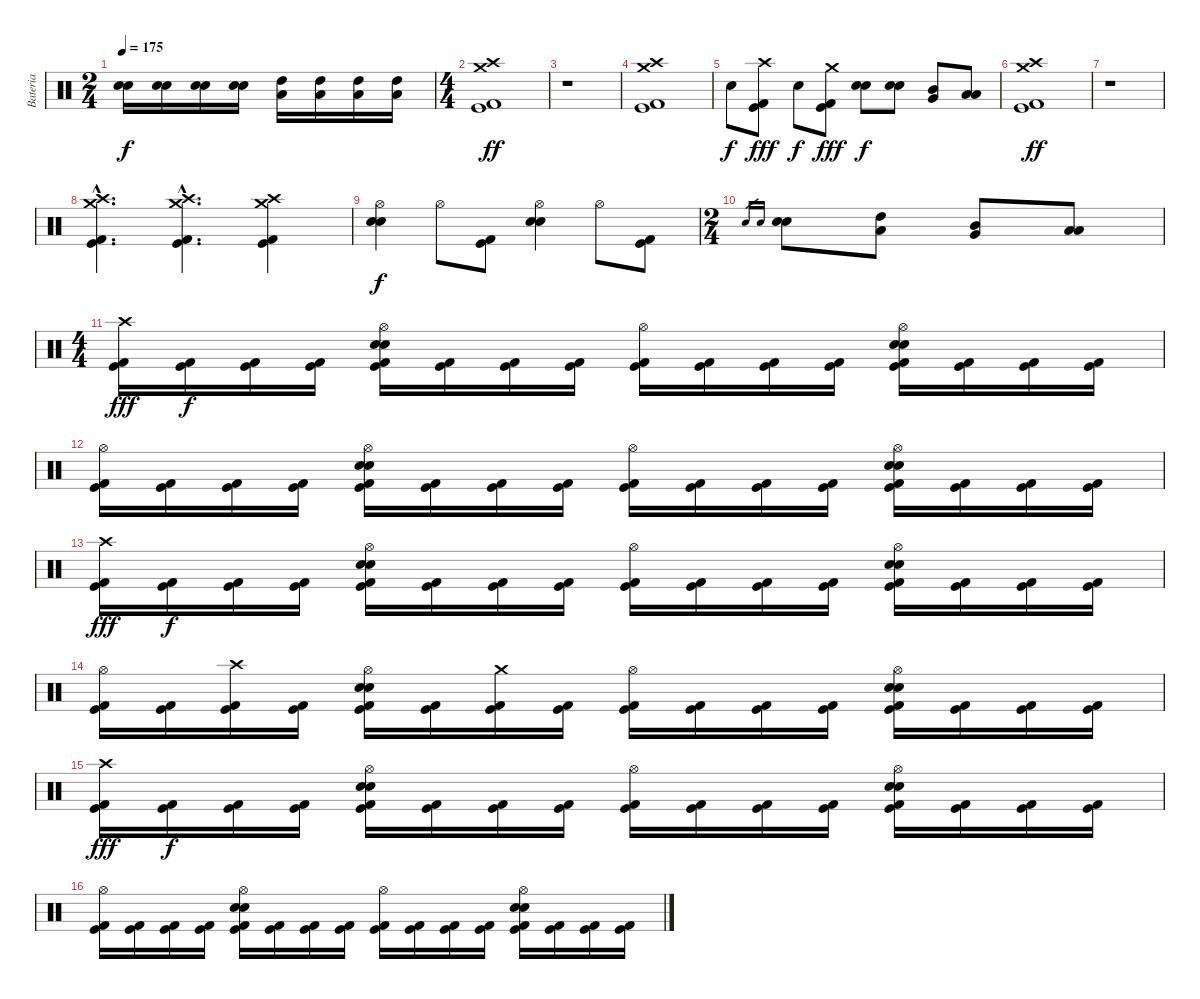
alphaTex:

\track ("Bateria" "Bateria") {instrument percussion}
\staff {score}
\articulation defaults
\ts (2 4)
\tempo 175
\clef neutral
\ks c
("Electric Snare (hit)" "Snare (hit) 2").16{dy f} ("Electric Snare (hit)" "Snare (hit) 2").16 ("Electric Snare (hit)" "Snare (hit) 2").16 ("Electric Snare (hit)" "Snare (hit) 2").16 ("High Tom (hit)" "Low Tom (hit)").16 ("High Tom (hit)" "Low Tom (hit)").16 ("High Tom (hit)" "Low Tom (hit)").16 ("High Tom (hit)" "Low Tom (hit)").16 |
\ts (4 4)
("Crash high (hit)" "Crash medium (hit)" "Kick (hit) 2" "Kick (hit)").1{dy ff} |
r.1 |
("Crash high (hit)" "Crash medium (hit)" "Kick (hit) 2" "Kick (hit)").1 |
"Snare (hit)"{x}.8{dy f} ("Crash high (hit)" "Kick (hit) 2" "Kick (hit)").8{dy fff} "Snare (hit)"{x}.8{dy f} ("Crash medium (hit)" "Kick (hit) 2" "Kick (hit)").8{dy fff} ("Electric Snare (hit)" "Snare (hit) 2").8{dy f} ("Electric Snare (hit)" "Snare (hit) 2").8 ("Mid Tom (hit)" "Very Low Tom (hit)").8 ("Low Tom (hit)" "Low Floor Tom (hit)").8 |
("Crash high (hit)" "Crash medium (hit)" "Kick (hit) 2" "Kick (hit)").1{dy ff} |
r.1 |
("Crash high (hit)"{hac} "Crash medium (hit)"{hac} "Kick (hit) 2"{hac} "Kick (hit)"{hac}).4{d} ("Crash high (hit)"{hac} "Crash medium (hit)"{hac} "Kick (hit) 2"{hac} "Kick (hit)"{hac}).4{d} ("Crash high (hit)" "Crash medium (hit)" "Kick (hit) 2" "Kick (hit)").4 |
("Hi-Hat (open)" "Electric Snare (hit)" "Snare (hit) 2").4{dy f} "Hi-Hat (open)".8 ("Kick (hit) 2" "Kick (hit)").8 ("Hi-Hat (open)" "Electric Snare (hit)" "Snare (hit) 2").4 "Hi-Hat (open)".8 ("Kick (hit) 2" "Kick (hit)").8 |
\ts (2 4)
"Electric Snare (hit)".16{gr} "Snare (hit) 2".16{gr} ("Electric Snare (hit)" "Snare (hit) 2").8 ("High Tom (hit)" "Low Tom (hit)").8 ("Mid Tom (hit)" "Very Low Tom (hit)").8 ("Low Tom (hit)" "Low Floor Tom (hit)").8 |
\ts (4 4)
("Crash high (hit)" "Kick (hit) 2" "Kick (hit)").16{dy fff} ("Kick (hit) 2" "Kick (hit)").16{dy f} ("Kick (hit) 2" "Kick (hit)").16 ("Kick (hit) 2" "Kick (hit)").16 ("Hi-Hat (open)" "Electric Snare (hit)" "Snare (hit) 2" "Kick (hit) 2" "Kick (hit)").16 ("Kick (hit) 2" "Kick (hit)").16 ("Kick (hit) 2" "Kick (hit)").16 ("Kick (hit) 2" "Kick (hit)").16 ("Hi-Hat (open)" "Kick (hit) 2" "Kick (hit)").16 ("Kick (hit) 2" "Kick (hit)").16 ("Kick (hit) 2" "Kick (hit)").16 ("Kick (hit) 2" "Kick (hit)").16 ("Hi-Hat (open)" "Electric Snare (hit)" "Snare (hit) 2" "Kick (hit) 2" "Kick (hit)").16 ("Kick (hit) 2" "Kick (hit)").16 ("Kick (hit) 2" "Kick (hit)").16 ("Kick (hit) 2" "Kick (hit)").16 |
("Hi-Hat (open)" "Kick (hit) 2" "Kick (hit)").16 ("Kick (hit) 2" "Kick (hit)").16 ("Kick (hit) 2" "Kick (hit)").16 ("Kick (hit) 2" "Kick (hit)").16 ("Hi-Hat (open)" "Electric Snare (hit)" "Snare (hit) 2" "Kick (hit) 2" "Kick (hit)").16 ("Kick (hit) 2" "Kick (hit)").16 ("Kick (hit) 2" "Kick (hit)").16 ("Kick (hit) 2" "Kick (hit)").16 ("Hi-Hat (open)" "Kick (hit) 2" "Kick (hit)").16 ("Kick (hit) 2" "Kick (hit)").16 ("Kick (hit) 2" "Kick (hit)").16 ("Kick (hit) 2" "Kick (hit)").16 ("Hi-Hat (open)" "Electric Snare (hit)" "Snare (hit) 2" "Kick (hit) 2" "Kick (hit)").16 ("Kick (hit) 2" "Kick (hit)").16 ("Kick (hit) 2" "Kick (hit)").16 ("Kick (hit) 2" "Kick (hit)").16 |
("Crash high (hit)" "Kick (hit) 2" "Kick (hit)").16{dy fff} ("Kick (hit) 2" "Kick (hit)").16{dy f} ("Kick (hit) 2" "Kick (hit)").16 ("Kick (hit) 2" "Kick (hit)").16 ("Hi-Hat (open)" "Electric Snare (hit)" "Snare (hit) 2" "Kick (hit) 2" "Kick (hit)").16 ("Kick (hit) 2" "Kick (hit)").16 ("Kick (hit) 2" "Kick (hit)").16 ("Kick (hit) 2" "Kick (hit)").16 ("Hi-Hat (open)" "Kick (hit) 2" "Kick (hit)").16 ("Kick (hit) 2" "Kick (hit)").16 ("Kick (hit) 2" "Kick (hit)").16 ("Kick (hit) 2" "Kick (hit)").16 ("Hi-Hat (open)" "Electric Snare (hit)" "Snare (hit) 2" "Kick (hit) 2" "Kick (hit)").16 ("Kick (hit) 2" "Kick (hit)").16 ("Kick (hit) 2" "Kick (hit)").16 ("Kick (hit) 2" "Kick (hit)").16 |
("Hi-Hat (open)" "Kick (hit) 2" "Kick (hit)").16 ("Kick (hit) 2" "Kick (hit)").16 ("Crash high (hit)" "Kick (hit) 2" "Kick (hit)").16 ("Kick (hit) 2" "Kick (hit)").16 ("Hi-Hat (open)" "Electric Snare (hit)" "Snare (hit) 2" "Kick (hit) 2" "Kick (hit)").16 ("Kick (hit) 2" "Kick (hit)").16 ("Crash medium (hit)" "Kick (hit) 2" "Kick (hit)").16 ("Kick (hit) 2" "Kick (hit)").16 ("Hi-Hat (open)" "Kick (hit) 2" "Kick (hit)").16 ("Kick (hit) 2" "Kick (hit)").16 ("Kick (hit) 2" "Kick (hit)").16 ("Kick (hit) 2" "Kick (hit)").16 ("Hi-Hat (open)" "Electric Snare (hit)" "Snare (hit) 2" "Kick (hit) 2" "Kick (hit)").16 ("Kick (hit) 2" "Kick (hit)").16 ("Kick (hit) 2" "Kick (hit)").16 ("Kick (hit) 2" "Kick (hit)").16 |
("Crash high (hit)" "Kick (hit) 2" "Kick (hit)").16{dy fff} ("Kick (hit) 2" "Kick (hit)").16{dy f} ("Kick (hit) 2" "Kick (hit)").16 ("Kick (hit) 2" "Kick (hit)").16 ("Hi-Hat (open)" "Electric Snare (hit)" "Snare (hit) 2" "Kick (hit) 2" "Kick (hit)").16 ("Kick (hit) 2" "Kick (hit)").16 ("Kick (hit) 2" "Kick (hit)").16 ("Kick (hit) 2" "Kick (hit)").16 ("Hi-Hat (open)" "Kick (hit) 2" "Kick (hit)").16 ("Kick (hit) 2" "Kick (hit)").16 ("Kick (hit) 2" "Kick (hit)").16 ("Kick (hit) 2" "Kick (hit)").16 ("Hi-Hat (open)" "Electric Snare (hit)" "Snare (hit) 2" "Kick (hit) 2" "Kick (hit)").16 ("Kick (hit) 2" "Kick (hit)").16 ("Kick (hit) 2" "Kick (hit)").16 ("Kick (hit) 2" "Kick (hit)").16 |
("Hi-Hat (open)" "Kick (hit) 2" "Kick (hit)").16 ("Kick (hit) 2" "Kick (hit)").16 ("Kick (hit) 2" "Kick (hit)").16 ("Kick (hit) 2" "Kick (hit)").16 ("Hi-Hat (open)" "Electric Snare (hit)" "Snare (hit) 2" "Kick (hit) 2" "Kick (hit)").16 ("Kick (hit) 2" "Kick (hit)").16 ("Kick (hit) 2" "Kick (hit)").16 ("Kick (hit) 2" "Kick (hit)").16 ("Hi-Hat (open)" "Kick (hit) 2" "Kick (hit)").16 ("Kick (hit) 2" "Kick (hit)").16 ("Kick (hit) 2" "Kick (hit)").16 ("Kick (hit) 2" "Kick (hit)").16 ("Hi-Hat (open)" "Electric Snare (hit)" "Snare (hit) 2" "Kick (hit) 2" "Kick (hit)").16 ("Kick (hit) 2" "Kick (hit)").16 ("Kick (hit) 2" "Kick (hit)").16 ("Kick (hit) 2" "Kick (hit)").16
